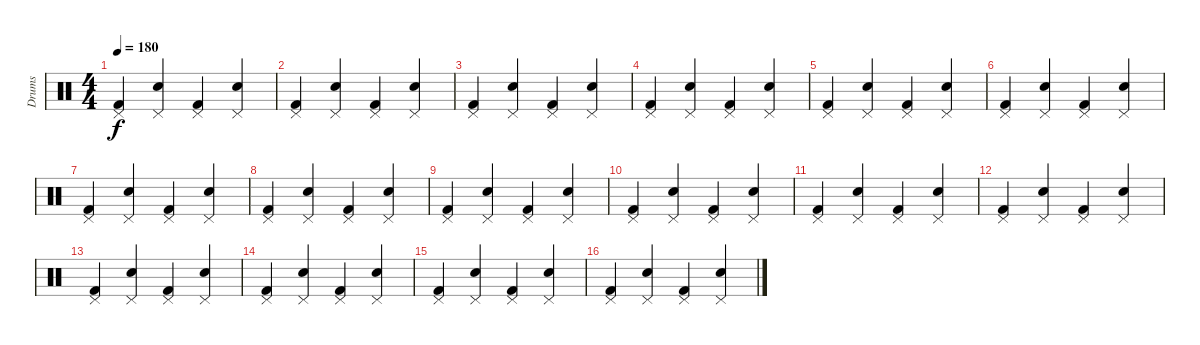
\track ("Drums" "Drums") {instrument percussion}
\staff {score}
\articulation defaults
\ts (4 4)
\tempo 180
\clef neutral
\ks c
("Pedal Hi-Hat (hit)" "Kick (hit) 2").4{dy f} ("Pedal Hi-Hat (hit)" "Snare (hit) 2").4 ("Pedal Hi-Hat (hit)" "Kick (hit) 2").4 ("Pedal Hi-Hat (hit)" "Snare (hit) 2").4 |
("Pedal Hi-Hat (hit)" "Kick (hit) 2").4 ("Pedal Hi-Hat (hit)" "Snare (hit) 2").4 ("Pedal Hi-Hat (hit)" "Kick (hit) 2").4 ("Pedal Hi-Hat (hit)" "Snare (hit) 2").4 |
("Pedal Hi-Hat (hit)" "Kick (hit) 2").4 ("Pedal Hi-Hat (hit)" "Snare (hit) 2").4 ("Pedal Hi-Hat (hit)" "Kick (hit) 2").4 ("Pedal Hi-Hat (hit)" "Snare (hit) 2").4 |
("Pedal Hi-Hat (hit)" "Kick (hit) 2").4 ("Pedal Hi-Hat (hit)" "Snare (hit) 2").4 ("Pedal Hi-Hat (hit)" "Kick (hit) 2").4 ("Pedal Hi-Hat (hit)" "Snare (hit) 2").4 |
("Pedal Hi-Hat (hit)" "Kick (hit) 2").4 ("Pedal Hi-Hat (hit)" "Snare (hit) 2").4 ("Pedal Hi-Hat (hit)" "Kick (hit) 2").4 ("Pedal Hi-Hat (hit)" "Snare (hit) 2").4 |
("Pedal Hi-Hat (hit)" "Kick (hit) 2").4 ("Pedal Hi-Hat (hit)" "Snare (hit) 2").4 ("Pedal Hi-Hat (hit)" "Kick (hit) 2").4 ("Pedal Hi-Hat (hit)" "Snare (hit) 2").4 |
("Pedal Hi-Hat (hit)" "Kick (hit) 2").4 ("Pedal Hi-Hat (hit)" "Snare (hit) 2").4 ("Pedal Hi-Hat (hit)" "Kick (hit) 2").4 ("Pedal Hi-Hat (hit)" "Snare (hit) 2").4 |
("Pedal Hi-Hat (hit)" "Kick (hit) 2").4 ("Pedal Hi-Hat (hit)" "Snare (hit) 2").4 ("Pedal Hi-Hat (hit)" "Kick (hit) 2").4 ("Pedal Hi-Hat (hit)" "Snare (hit) 2").4 |
("Pedal Hi-Hat (hit)" "Kick (hit) 2").4 ("Pedal Hi-Hat (hit)" "Snare (hit) 2").4 ("Pedal Hi-Hat (hit)" "Kick (hit) 2").4 ("Pedal Hi-Hat (hit)" "Snare (hit) 2").4 |
("Pedal Hi-Hat (hit)" "Kick (hit) 2").4 ("Pedal Hi-Hat (hit)" "Snare (hit) 2").4 ("Pedal Hi-Hat (hit)" "Kick (hit) 2").4 ("Pedal Hi-Hat (hit)" "Snare (hit) 2").4 |
("Pedal Hi-Hat (hit)" "Kick (hit) 2").4 ("Pedal Hi-Hat (hit)" "Snare (hit) 2").4 ("Pedal Hi-Hat (hit)" "Kick (hit) 2").4 ("Pedal Hi-Hat (hit)" "Snare (hit) 2").4 |
("Pedal Hi-Hat (hit)" "Kick (hit) 2").4 ("Pedal Hi-Hat (hit)" "Snare (hit) 2").4 ("Pedal Hi-Hat (hit)" "Kick (hit) 2").4 ("Pedal Hi-Hat (hit)" "Snare (hit) 2").4 |
("Pedal Hi-Hat (hit)" "Kick (hit) 2").4 ("Pedal Hi-Hat (hit)" "Snare (hit) 2").4 ("Pedal Hi-Hat (hit)" "Kick (hit) 2").4 ("Pedal Hi-Hat (hit)" "Snare (hit) 2").4 |
("Pedal Hi-Hat (hit)" "Kick (hit) 2").4 ("Pedal Hi-Hat (hit)" "Snare (hit) 2").4 ("Pedal Hi-Hat (hit)" "Kick (hit) 2").4 ("Pedal Hi-Hat (hit)" "Snare (hit) 2").4 |
("Pedal Hi-Hat (hit)" "Kick (hit) 2").4 ("Pedal Hi-Hat (hit)" "Snare (hit) 2").4 ("Pedal Hi-Hat (hit)" "Kick (hit) 2").4 ("Pedal Hi-Hat (hit)" "Snare (hit) 2").4 |
("Pedal Hi-Hat (hit)" "Kick (hit) 2").4 ("Pedal Hi-Hat (hit)" "Snare (hit) 2").4 ("Pedal Hi-Hat (hit)" "Kick (hit) 2").4 ("Pedal Hi-Hat (hit)" "Snare (hit) 2").4
